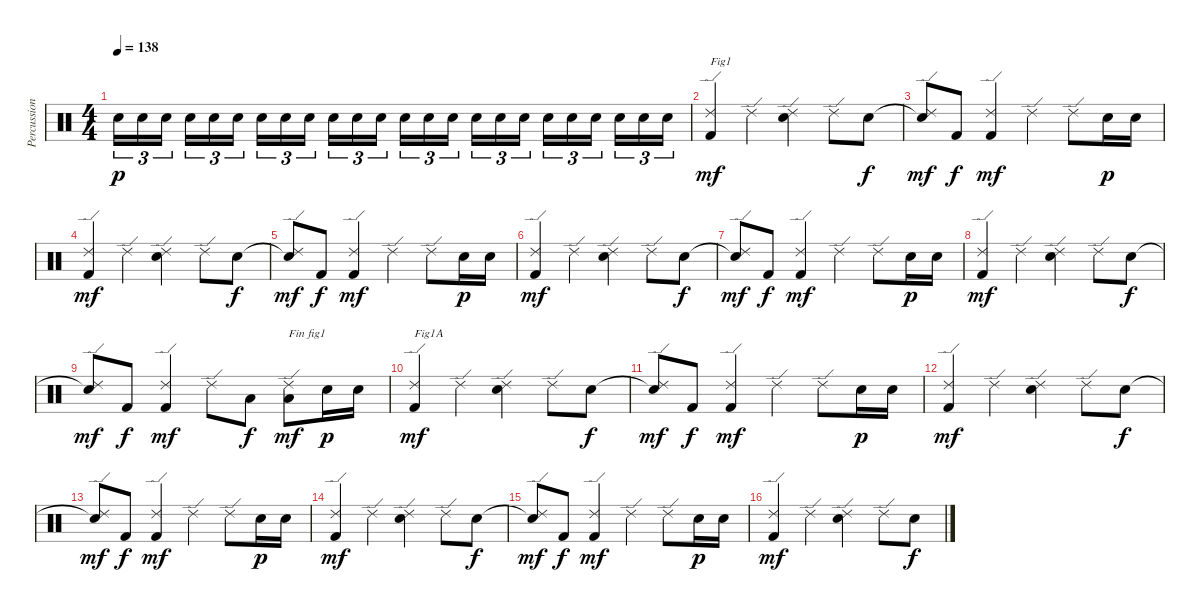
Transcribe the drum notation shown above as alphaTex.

\track ("Percussions" "Percussion") {instrument percussion}
\staff {score}
\articulation defaults
\ts (4 4)
\tempo 138
\clef neutral
\ks c "Snare (hit) 2".16{tu (3 2) dy p} "Snare (hit) 2".16{tu (3 2)} "Snare (hit) 2".16{tu (3 2)} "Snare (hit) 2".16{tu (3 2)} "Snare (hit) 2".16{tu (3 2)} "Snare (hit) 2".16{tu (3 2)} "Snare (hit) 2".16{tu (3 2)} "Snare (hit) 2".16{tu (3 2)} "Snare (hit) 2".16{tu (3 2)} "Snare (hit) 2".16{tu (3 2)} "Snare (hit) 2".16{tu (3 2)} "Snare (hit) 2".16{tu (3 2)} "Snare (hit) 2".16{tu (3 2)} "Snare (hit) 2".16{tu (3 2)} "Snare (hit) 2".16{tu (3 2)} "Snare (hit) 2".16{tu (3 2)} "Snare (hit) 2".16{tu (3 2)} "Snare (hit) 2".16{tu (3 2)} "Snare (hit) 2".16{tu (3 2)} "Snare (hit) 2".16{tu (3 2)} "Snare (hit) 2".16{tu (3 2)} "Snare (hit) 2".16{tu (3 2)} "Snare (hit) 2".16{tu (3 2)} "Snare (hit) 2".16{tu (3 2)}
|
("Kick (hit) 2" "Ride (edge) 2").4{txt "Fig1" dy mf} "Ride (edge) 2".4 ("Snare (hit) 2" "Ride (edge) 2").4 "Ride (edge) 2".8 "Snare (hit) 2".8{dy f} |
("Snare (hit)"{t} "Ride (edge) 2").8{dy mf} "Kick (hit) 2".8{dy f} ("Kick (hit) 2" "Ride (edge) 2").4{dy mf} "Ride (edge) 2".4 "Ride (edge) 2".8 "Snare (hit) 2".16{dy p} "Snare (hit) 2".16 |
("Kick (hit) 2" "Ride (edge) 2").4{dy mf} "Ride (edge) 2".4 ("Snare (hit) 2" "Ride (edge) 2").4 "Ride (edge) 2".8 "Snare (hit) 2".8{dy f} |
("Snare (hit)"{t} "Ride (edge) 2").8{dy mf} "Kick (hit) 2".8{dy f} ("Kick (hit) 2" "Ride (edge) 2").4{dy mf} "Ride (edge) 2".4 "Ride (edge) 2".8 "Snare (hit) 2".16{dy p} "Snare (hit) 2".16 |
("Kick (hit) 2" "Ride (edge) 2").4{dy mf} "Ride (edge) 2".4 ("Snare (hit) 2" "Ride (edge) 2").4 "Ride (edge) 2".8 "Snare (hit) 2".8{dy f} |
("Snare (hit)"{t} "Ride (edge) 2").8{dy mf} "Kick (hit) 2".8{dy f} ("Kick (hit) 2" "Ride (edge) 2").4{dy mf} "Ride (edge) 2".4 "Ride (edge) 2".8 "Snare (hit) 2".16{dy p} "Snare (hit) 2".16 |
("Kick (hit) 2" "Ride (edge) 2").4{dy mf} "Ride (edge) 2".4 ("Snare (hit) 2" "Ride (edge) 2").4 "Ride (edge) 2".8 "Snare (hit) 2".8{dy f} |
("Snare (hit)"{t} "Ride (edge) 2").8{dy mf} "Kick (hit) 2".8{dy f} ("Kick (hit) 2" "Ride (edge) 2").4{dy mf} "Ride (edge) 2".8 "Low Floor Tom (hit)".8{dy f} ("Low Floor Tom (hit)" "Ride (edge) 2").8{txt "Fin fig1" dy mf} "Snare (hit) 2".16{dy p} "Snare (hit) 2".16 |
("Kick (hit) 2" "Ride (edge) 2").4{txt "Fig1A" dy mf} "Ride (edge) 2".4 ("Snare (hit) 2" "Ride (edge) 2").4 "Ride (edge) 2".8 "Snare (hit) 2".8{dy f} |
("Snare (hit)"{t} "Ride (edge) 2").8{dy mf} "Kick (hit) 2".8{dy f} ("Kick (hit) 2" "Ride (edge) 2").4{dy mf} "Ride (edge) 2".4 "Ride (edge) 2".8 "Snare (hit) 2".16{dy p} "Snare (hit) 2".16 |
("Kick (hit) 2" "Ride (edge) 2").4{dy mf} "Ride (edge) 2".4 ("Snare (hit) 2" "Ride (edge) 2").4 "Ride (edge) 2".8 "Snare (hit) 2".8{dy f} |
("Snare (hit)"{t} "Ride (edge) 2").8{dy mf} "Kick (hit) 2".8{dy f} ("Kick (hit) 2" "Ride (edge) 2").4{dy mf} "Ride (edge) 2".4 "Ride (edge) 2".8 "Snare (hit) 2".16{dy p} "Snare (hit) 2".16 |
("Kick (hit) 2" "Ride (edge) 2").4{dy mf} "Ride (edge) 2".4 ("Snare (hit) 2" "Ride (edge) 2").4 "Ride (edge) 2".8 "Snare (hit) 2".8{dy f} |
("Snare (hit)"{t} "Ride (edge) 2").8{dy mf} "Kick (hit) 2".8{dy f} ("Kick (hit) 2" "Ride (edge) 2").4{dy mf} "Ride (edge) 2".4 "Ride (edge) 2".8 "Snare (hit) 2".16{dy p} "Snare (hit) 2".16 |
("Kick (hit) 2" "Ride (edge) 2").4{dy mf} "Ride (edge) 2".4 ("Snare (hit) 2" "Ride (edge) 2").4 "Ride (edge) 2".8 "Snare (hit) 2".8{dy f}
